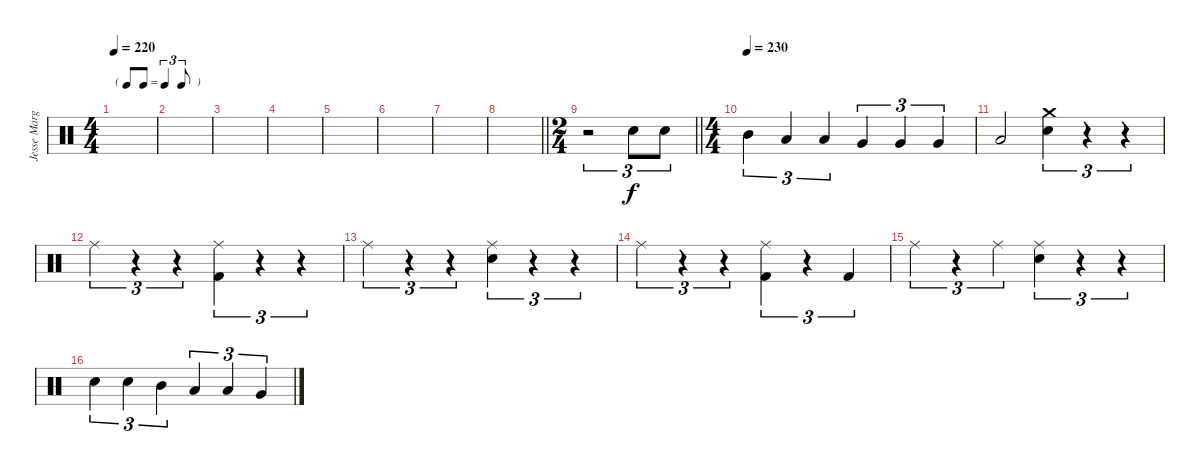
\track ("Jesse Margera" "Jesse Marg") {instrument percussion}
\staff {score}
\articulation defaults
\ts (4 4)
\tf triplet8th
\tempo 220
\clef neutral
\ks c
|
|
|
|
|
|
|
\barLineRight lightlight
|
\ts (2 4)
\barLineRight lightlight
r.2{tu (3 2)} "Electric Snare (hit)".8{tu (3 2)} "Electric Snare (hit)".8{tu (3 2)} |
\ts (4 4)
\section ("" "")
\tempo (230)
"Mid Tom (hit)".4{tu (3 2)} "Low Tom (hit)".4{tu (3 2)} "Low Tom (hit)".4{tu (3 2)} "Very Low Tom (hit)".4{tu (3 2)} "Very Low Tom (hit)".4{tu (3 2)} "Very Low Tom (hit)".4{tu (3 2)} |
"Low Floor Tom (hit)".2 ("Crash medium (hit)" "Electric Snare (hit)").4{tu (3 2)} r.4{tu (3 2)} r.4{tu (3 2)} |
"Ride (middle)".4{tu (3 2)} r.4{tu (3 2)} r.4{tu (3 2)} ("Ride (middle)" "Kick (hit) 2").4{tu (3 2)} r.4{tu (3 2)} r.4{tu (3 2)} |
"Ride (middle)".4{tu (3 2)} r.4{tu (3 2)} r.4{tu (3 2)} ("Ride (middle)" "Electric Snare (hit)").4{tu (3 2)} r.4{tu (3 2)} r.4{tu (3 2)} |
"Ride (middle)".4{tu (3 2)} r.4{tu (3 2)} r.4{tu (3 2)} ("Ride (middle)" "Kick (hit) 2").4{tu (3 2)} r.4{tu (3 2)} "Kick (hit) 2".4{tu (3 2)} |
"Ride (middle)".4{tu (3 2)} r.4{tu (3 2)} "Ride (middle)".4{tu (3 2)} ("Ride (middle)" "Electric Snare (hit)").4{tu (3 2)} r.4{tu (3 2)} r.4{tu (3 2)} |
"Electric Snare (hit)".4{tu (3 2)} "Electric Snare (hit)".4{tu (3 2)} "Mid Tom (hit)".4{tu (3 2)} "Low Tom (hit)".4{tu (3 2)} "Low Tom (hit)".4{tu (3 2)} "Very Low Tom (hit)".4{tu (3 2)}
